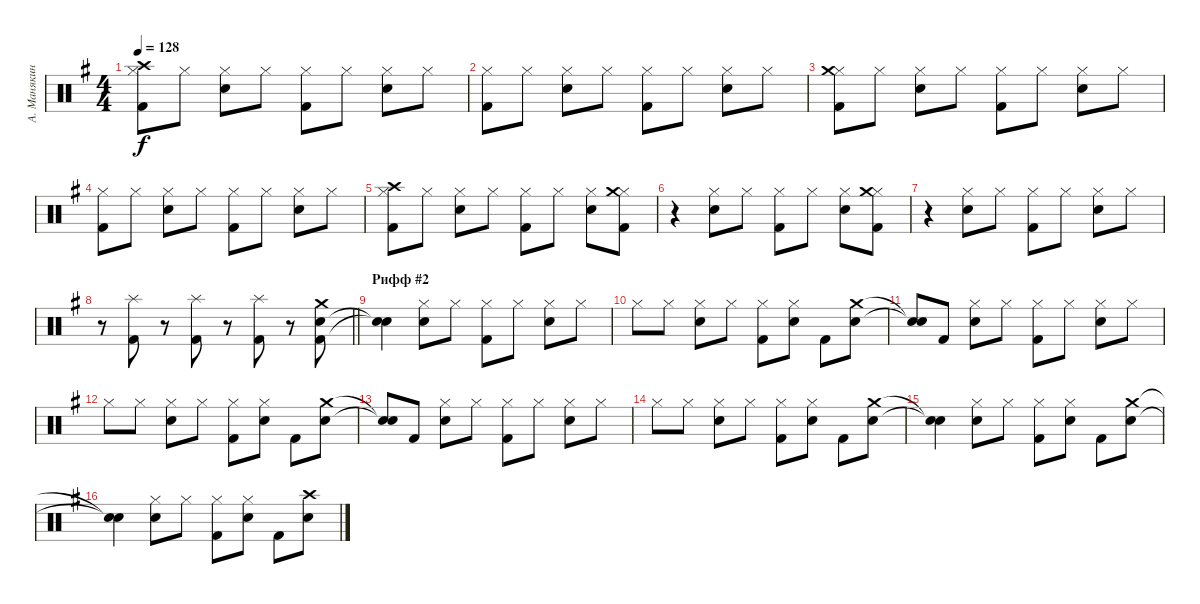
\track ("А. Манякин" "А. Манякин") {instrument percussion}
\staff {score}
\articulation defaults
\ts (4 4)
\tempo 128
\clef neutral
\ks g
("Kick (hit) 2" "Hi-Hat (closed)" "Crash high (hit)").8{dy f} "Hi-Hat (closed)".8 ("Electric Snare (hit)" "Hi-Hat (closed)").8 "Hi-Hat (closed)".8 ("Kick (hit) 2" "Hi-Hat (closed)").8 "Hi-Hat (closed)".8 ("Electric Snare (hit)" "Hi-Hat (closed)").8 "Hi-Hat (closed)".8 |
("Kick (hit) 2" "Hi-Hat (closed)").8 "Hi-Hat (closed)".8 ("Electric Snare (hit)" "Hi-Hat (closed)").8 "Hi-Hat (closed)".8 ("Kick (hit) 2" "Hi-Hat (closed)").8 "Hi-Hat (closed)".8 ("Electric Snare (hit)" "Hi-Hat (closed)").8 "Hi-Hat (closed)".8 |
("Kick (hit) 2" "Hi-Hat (closed)" "Crash medium (hit)").8 "Hi-Hat (closed)".8 ("Electric Snare (hit)" "Hi-Hat (closed)").8 "Hi-Hat (closed)".8 ("Kick (hit) 2" "Hi-Hat (closed)").8 "Hi-Hat (closed)".8 ("Electric Snare (hit)" "Hi-Hat (closed)").8 "Hi-Hat (closed)".8 |
("Kick (hit) 2" "Hi-Hat (closed)").8 "Hi-Hat (closed)".8 ("Electric Snare (hit)" "Hi-Hat (closed)").8 "Hi-Hat (closed)".8 ("Kick (hit) 2" "Hi-Hat (closed)").8 "Hi-Hat (closed)".8 ("Electric Snare (hit)" "Hi-Hat (closed)").8 "Hi-Hat (closed)".8 |
("Kick (hit) 2" "Hi-Hat (closed)" "Crash high (hit)").8 "Hi-Hat (closed)".8 ("Electric Snare (hit)" "Hi-Hat (closed)").8 "Hi-Hat (closed)".8 ("Kick (hit) 2" "Hi-Hat (closed)").8 "Hi-Hat (closed)".8 ("Electric Snare (hit)" "Hi-Hat (closed)").8 ("Kick (hit) 2" "Hi-Hat (closed)" "Crash medium (hit)").8 |
r.4 ("Electric Snare (hit)" "Hi-Hat (closed)").8 "Hi-Hat (closed)".8 ("Kick (hit) 2" "Hi-Hat (closed)").8 "Hi-Hat (closed)".8 ("Electric Snare (hit)" "Hi-Hat (closed)").8 ("Kick (hit) 2" "Hi-Hat (closed)" "Crash medium (hit)").8 |
r.4 ("Electric Snare (hit)" "Hi-Hat (closed)").8 "Hi-Hat (closed)".8 ("Kick (hit) 2" "Hi-Hat (closed)").8 "Hi-Hat (closed)".8 ("Electric Snare (hit)" "Hi-Hat (closed)").8 "Hi-Hat (closed)".8 |
\barLineRight lightlight
r.8 ("Kick (hit) 2" "Splash (hit)").8 r.8 ("Kick (hit) 2" "Splash (hit)").8 r.8 ("Kick (hit) 2" "Splash (hit)").8 r.8 ("Kick (hit) 2" "Electric Snare (hit)" "Crash medium (hit)").8 |
\section ("" "Рифф #2")
("Snare (hit)"{t} "Snare (hit)"{t}).4 ("Electric Snare (hit)" "Hi-Hat (closed)").8 "Hi-Hat (closed)".8 ("Kick (hit) 2" "Hi-Hat (closed)").8 "Hi-Hat (closed)".8 ("Electric Snare (hit)" "Hi-Hat (closed)").8 "Hi-Hat (closed)".8 |
"Hi-Hat (closed)".8 "Hi-Hat (closed)".8 ("Electric Snare (hit)" "Hi-Hat (closed)").8 "Hi-Hat (closed)".8 ("Kick (hit) 2" "Hi-Hat (closed)").8 ("Electric Snare (hit)" "Hi-Hat (closed)").8 "Kick (hit) 2".8 ("Electric Snare (hit)" "Crash medium (hit)").8 |
("Snare (hit)"{t} "Snare (hit)"{t}).8 "Kick (hit) 2".8 ("Electric Snare (hit)" "Hi-Hat (closed)").8 "Hi-Hat (closed)".8 ("Kick (hit) 2" "Hi-Hat (closed)").8 "Hi-Hat (closed)".8 ("Electric Snare (hit)" "Hi-Hat (closed)").8 "Hi-Hat (closed)".8 |
"Hi-Hat (closed)".8 "Hi-Hat (closed)".8 ("Electric Snare (hit)" "Hi-Hat (closed)").8 "Hi-Hat (closed)".8 ("Kick (hit) 2" "Hi-Hat (closed)").8 ("Electric Snare (hit)" "Hi-Hat (closed)").8 "Kick (hit) 2".8 ("Electric Snare (hit)" "Crash medium (hit)").8 |
("Snare (hit)"{t} "Snare (hit)"{t}).8 "Kick (hit) 2".8 ("Electric Snare (hit)" "Hi-Hat (closed)").8 "Hi-Hat (closed)".8 ("Kick (hit) 2" "Hi-Hat (closed)").8 "Hi-Hat (closed)".8 ("Electric Snare (hit)" "Hi-Hat (closed)").8 "Hi-Hat (closed)".8 |
"Hi-Hat (closed)".8 "Hi-Hat (closed)".8 ("Electric Snare (hit)" "Hi-Hat (closed)").8 "Hi-Hat (closed)".8 ("Kick (hit) 2" "Hi-Hat (closed)").8 ("Electric Snare (hit)" "Hi-Hat (closed)").8 "Kick (hit) 2".8 ("Electric Snare (hit)" "Crash medium (hit)").8 |
("Snare (hit)"{t} "Snare (hit)"{t}).4 ("Electric Snare (hit)" "Hi-Hat (closed)").8 "Hi-Hat (closed)".8 ("Kick (hit) 2" "Hi-Hat (closed)").8 ("Electric Snare (hit)" "Hi-Hat (closed)").8 "Kick (hit) 2".8 ("Electric Snare (hit)" "Crash medium (hit)").8 |
("Snare (hit)"{t} "Snare (hit)"{t}).4 ("Electric Snare (hit)" "Hi-Hat (closed)").8 "Hi-Hat (closed)".8 ("Kick (hit) 2" "Hi-Hat (closed)").8 ("Electric Snare (hit)" "Hi-Hat (closed)").8 "Kick (hit) 2".8 ("Electric Snare (hit)" "Crash high (hit)").8
